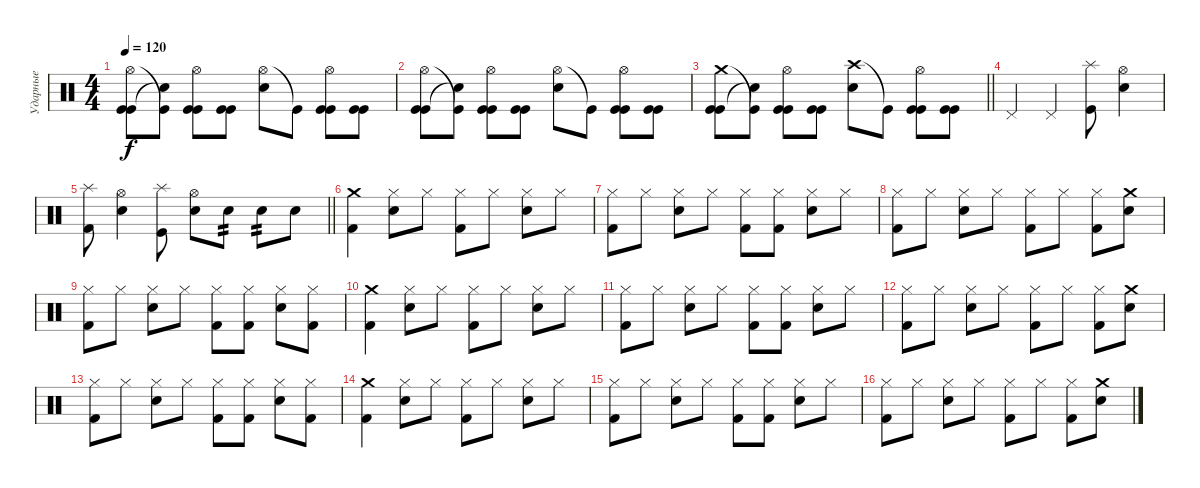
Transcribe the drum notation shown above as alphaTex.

\track ("Ударные" "Ударные") {instrument percussion}
\staff {score}
\articulation defaults
\ts (4 4)
\tempo 120
\clef neutral
\ks c
("Hi-Hat (open)" "Kick (hit)" "Kick (hit)").8{dy f} ("Kick (hit)"{t} "Snare (hit)"{t}).8 ("Hi-Hat (open)" "Kick (hit)" "Kick (hit)").8 ("Kick (hit)" "Kick (hit)").8 ("Hi-Hat (open)" "Snare (hit) 2").8 "Kick (hit)"{t}.8 ("Hi-Hat (open)" "Kick (hit)" "Kick (hit)").8 ("Kick (hit)" "Kick (hit)").8 |
("Hi-Hat (open)" "Kick (hit)" "Kick (hit)").8 ("Kick (hit)"{t} "Snare (hit)"{t}).8 ("Hi-Hat (open)" "Kick (hit)" "Kick (hit)").8 ("Kick (hit)" "Kick (hit)").8 ("Hi-Hat (open)" "Snare (hit) 2").8 "Kick (hit)"{t}.8 ("Hi-Hat (open)" "Kick (hit)" "Kick (hit)").8 ("Kick (hit)" "Kick (hit)").8 |
\barLineRight lightlight
("Crash medium (hit)" "Kick (hit)" "Kick (hit)").8 ("Kick (hit)"{t} "Snare (hit)"{t}).8 ("Hi-Hat (open)" "Kick (hit)" "Kick (hit)").8 ("Kick (hit)" "Kick (hit)").8 ("Crash high (hit)" "Snare (hit) 2").8 "Kick (hit)"{t}.8 ("Hi-Hat (open)" "Kick (hit)" "Kick (hit)").8 ("Kick (hit)" "Kick (hit)").8 |
"Pedal Hi-Hat (hit)".4 "Pedal Hi-Hat (hit)".4 ("Kick (hit)" "Splash (hit)").8 ("Snare (hit) 2" "Hi-Hat (open)").4 |
\barLineRight lightlight
("Kick (hit) 2" "Splash (hit)").8 ("Snare (hit) 2" "Hi-Hat (open)").4 ("Kick (hit)" "Splash (hit)").8 ("Snare (hit) 2" "Hi-Hat (open)").8 "Snare (hit) 2".8{tp 2} "Snare (hit) 2".8{tp 2} "Snare (hit) 2".8 |
("Kick (hit) 2" "Crash medium (hit)").4 ("Snare (hit) 2" "Hi-Hat (closed)").8 "Hi-Hat (closed)".8 ("Hi-Hat (closed)" "Kick (hit) 2").8 "Hi-Hat (closed)".8 ("Snare (hit) 2" "Hi-Hat (closed)").8 "Hi-Hat (closed)".8 |
("Hi-Hat (closed)" "Kick (hit) 2").8 "Hi-Hat (closed)".8 ("Snare (hit) 2" "Hi-Hat (closed)").8 "Hi-Hat (closed)".8 ("Kick (hit) 2" "Hi-Hat (closed)").8 ("Kick (hit) 2" "Hi-Hat (closed)").8 ("Snare (hit) 2" "Hi-Hat (closed)").8 "Hi-Hat (closed)".8 |
("Hi-Hat (closed)" "Kick (hit) 2").8 "Hi-Hat (closed)".8 ("Snare (hit) 2" "Hi-Hat (closed)").8 "Hi-Hat (closed)".8 ("Hi-Hat (closed)" "Kick (hit) 2").8 "Hi-Hat (closed)".8 ("Hi-Hat (closed)" "Kick (hit) 2").8 ("Crash medium (hit)" "Snare (hit) 2").8 |
("Hi-Hat (closed)" "Kick (hit) 2").8 "Hi-Hat (closed)".8 ("Snare (hit) 2" "Hi-Hat (closed)").8 "Hi-Hat (closed)".8 ("Kick (hit) 2" "Hi-Hat (closed)").8 ("Kick (hit) 2" "Hi-Hat (closed)").8 ("Snare (hit) 2" "Hi-Hat (closed)").8 ("Kick (hit) 2" "Hi-Hat (closed)").8 |
("Kick (hit) 2" "Crash medium (hit)").4 ("Snare (hit) 2" "Hi-Hat (closed)").8 "Hi-Hat (closed)".8 ("Hi-Hat (closed)" "Kick (hit) 2").8 "Hi-Hat (closed)".8 ("Snare (hit) 2" "Hi-Hat (closed)").8 "Hi-Hat (closed)".8 |
("Hi-Hat (closed)" "Kick (hit) 2").8 "Hi-Hat (closed)".8 ("Snare (hit) 2" "Hi-Hat (closed)").8 "Hi-Hat (closed)".8 ("Kick (hit) 2" "Hi-Hat (closed)").8 ("Kick (hit) 2" "Hi-Hat (closed)").8 ("Snare (hit) 2" "Hi-Hat (closed)").8 "Hi-Hat (closed)".8 |
("Hi-Hat (closed)" "Kick (hit) 2").8 "Hi-Hat (closed)".8 ("Snare (hit) 2" "Hi-Hat (closed)").8 "Hi-Hat (closed)".8 ("Hi-Hat (closed)" "Kick (hit) 2").8 "Hi-Hat (closed)".8 ("Hi-Hat (closed)" "Kick (hit) 2").8 ("Crash medium (hit)" "Snare (hit) 2").8 |
("Hi-Hat (closed)" "Kick (hit) 2").8 "Hi-Hat (closed)".8 ("Snare (hit) 2" "Hi-Hat (closed)").8 "Hi-Hat (closed)".8 ("Kick (hit) 2" "Hi-Hat (closed)").8 ("Kick (hit) 2" "Hi-Hat (closed)").8 ("Snare (hit) 2" "Hi-Hat (closed)").8 ("Kick (hit) 2" "Hi-Hat (closed)").8 |
("Kick (hit) 2" "Crash medium (hit)").4 ("Snare (hit) 2" "Hi-Hat (closed)").8 "Hi-Hat (closed)".8 ("Hi-Hat (closed)" "Kick (hit) 2").8 "Hi-Hat (closed)".8 ("Snare (hit) 2" "Hi-Hat (closed)").8 "Hi-Hat (closed)".8 |
("Hi-Hat (closed)" "Kick (hit) 2").8 "Hi-Hat (closed)".8 ("Snare (hit) 2" "Hi-Hat (closed)").8 "Hi-Hat (closed)".8 ("Kick (hit) 2" "Hi-Hat (closed)").8 ("Kick (hit) 2" "Hi-Hat (closed)").8 ("Snare (hit) 2" "Hi-Hat (closed)").8 "Hi-Hat (closed)".8 |
("Hi-Hat (closed)" "Kick (hit) 2").8 "Hi-Hat (closed)".8 ("Snare (hit) 2" "Hi-Hat (closed)").8 "Hi-Hat (closed)".8 ("Hi-Hat (closed)" "Kick (hit) 2").8 "Hi-Hat (closed)".8 ("Hi-Hat (closed)" "Kick (hit) 2").8 ("Crash medium (hit)" "Snare (hit) 2").8
